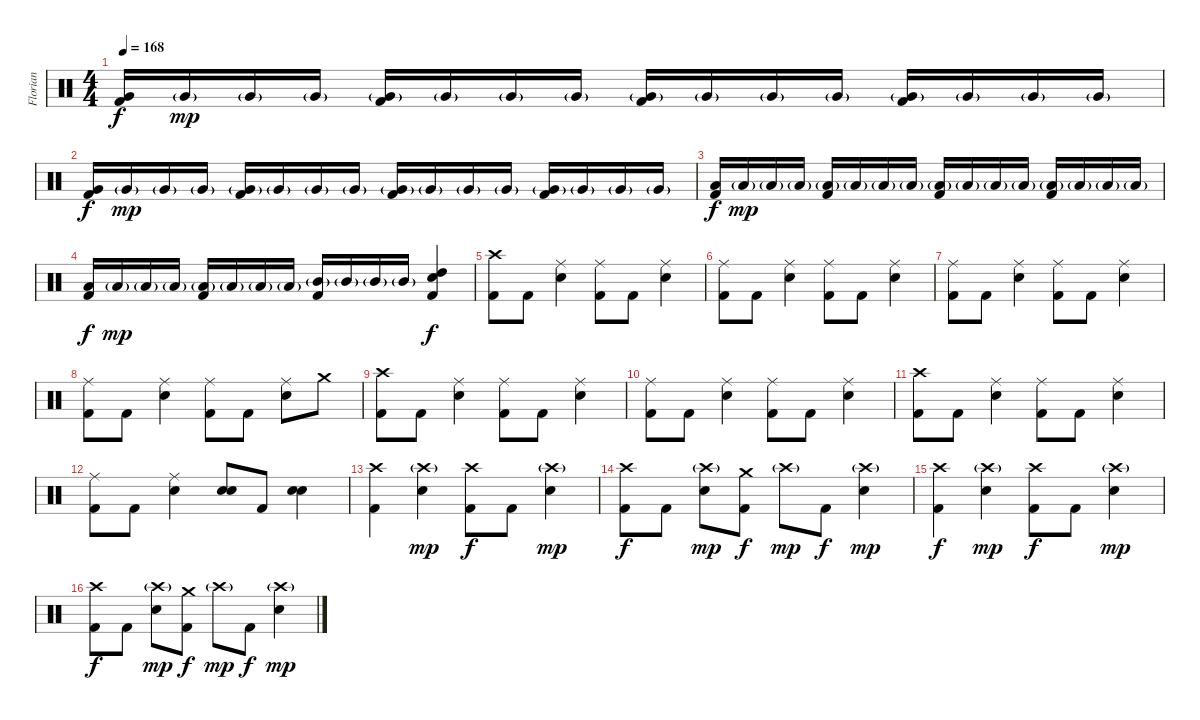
\track ("Florian" "Florian") {instrument percussion}
\staff {score}
\articulation defaults
\ts (4 4)
\tempo 168
\clef neutral
\ks c
("Very Low Tom (hit)" "Kick (hit) 2").16{dy f} "Very Low Tom (hit)"{g}.16{dy mp} "Very Low Tom (hit)"{g}.16 "Very Low Tom (hit)"{g}.16 ("Very Low Tom (hit)"{g} "Kick (hit) 2").16 "Very Low Tom (hit)"{g}.16 "Very Low Tom (hit)"{g}.16 "Very Low Tom (hit)"{g}.16 ("Very Low Tom (hit)"{g} "Kick (hit) 2").16 "Very Low Tom (hit)"{g}.16 "Very Low Tom (hit)"{g}.16 "Very Low Tom (hit)"{g}.16 ("Very Low Tom (hit)"{g} "Kick (hit) 2").16 "Very Low Tom (hit)"{g}.16 "Very Low Tom (hit)"{g}.16 "Very Low Tom (hit)"{g}.16 |
("Very Low Tom (hit)" "Kick (hit) 2").16{dy f} "Very Low Tom (hit)"{g}.16{dy mp} "Very Low Tom (hit)"{g}.16 "Very Low Tom (hit)"{g}.16 ("Very Low Tom (hit)"{g} "Kick (hit) 2").16 "Very Low Tom (hit)"{g}.16 "Very Low Tom (hit)"{g}.16 "Very Low Tom (hit)"{g}.16 ("Very Low Tom (hit)"{g} "Kick (hit) 2").16 "Very Low Tom (hit)"{g}.16 "Very Low Tom (hit)"{g}.16 "Very Low Tom (hit)"{g}.16 ("Very Low Tom (hit)"{g} "Kick (hit) 2").16 "Very Low Tom (hit)"{g}.16 "Very Low Tom (hit)"{g}.16 "Very Low Tom (hit)"{g}.16 |
("Low Tom (hit)" "Kick (hit) 2").16{dy f} "Low Tom (hit)"{g}.16{dy mp} "Low Tom (hit)"{g}.16 "Low Tom (hit)"{g}.16 ("Low Tom (hit)"{g} "Kick (hit) 2").16 "Low Tom (hit)"{g}.16 "Low Tom (hit)"{g}.16 "Low Tom (hit)"{g}.16 ("Low Tom (hit)"{g} "Kick (hit) 2").16 "Low Tom (hit)"{g}.16 "Low Tom (hit)"{g}.16 "Low Tom (hit)"{g}.16 ("Low Tom (hit)"{g} "Kick (hit) 2").16 "Low Tom (hit)"{g}.16 "Low Tom (hit)"{g}.16 "Low Tom (hit)"{g}.16 |
("Low Tom (hit)" "Kick (hit) 2").16{dy f} "Low Tom (hit)"{g}.16{dy mp} "Low Tom (hit)"{g}.16 "Low Tom (hit)"{g}.16 ("Low Tom (hit)"{g} "Kick (hit) 2").16 "Low Tom (hit)"{g}.16 "Low Tom (hit)"{g}.16 "Low Tom (hit)"{g}.16 ("Mid Tom (hit)"{g} "Kick (hit) 2").16 "Mid Tom (hit)"{g}.16 "Mid Tom (hit)"{g}.16 "Mid Tom (hit)"{g}.16 ("High Tom (hit)" "Snare (hit) 2" "Kick (hit) 2").4{dy f} |
("Crash high (hit)" "Kick (hit) 2").8 "Kick (hit) 2".8 ("Ride (middle)" "Snare (hit) 2").4 ("Ride (middle)" "Kick (hit) 2").8 "Kick (hit) 2".8 ("Ride (middle)" "Snare (hit) 2").4 |
("Ride (middle)" "Kick (hit) 2").8 "Kick (hit) 2".8 ("Ride (middle)" "Snare (hit) 2").4 ("Ride (middle)" "Kick (hit) 2").8 "Kick (hit) 2".8 ("Ride (middle)" "Snare (hit) 2").4 |
("Ride (middle)" "Kick (hit) 2").8 "Kick (hit) 2".8 ("Ride (middle)" "Snare (hit) 2").4 ("Ride (middle)" "Kick (hit) 2").8 "Kick (hit) 2".8 ("Ride (middle)" "Snare (hit) 2").4 |
("Ride (middle)" "Kick (hit) 2").8 "Kick (hit) 2".8 ("Ride (middle)" "Snare (hit) 2").4 ("Ride (middle)" "Kick (hit) 2").8 "Kick (hit) 2".8 ("Ride (middle)" "Snare (hit) 2").8 "Crash medium (hit)".8 |
("Crash high (hit)" "Kick (hit) 2").8 "Kick (hit) 2".8 ("Ride (middle)" "Snare (hit) 2").4 ("Ride (middle)" "Kick (hit) 2").8 "Kick (hit) 2".8 ("Ride (middle)" "Snare (hit) 2").4 |
("Ride (middle)" "Kick (hit) 2").8 "Kick (hit) 2".8 ("Ride (middle)" "Snare (hit) 2").4 ("Ride (middle)" "Kick (hit) 2").8 "Kick (hit) 2".8 ("Ride (middle)" "Snare (hit) 2").4 |
("Crash high (hit)" "Kick (hit) 2").8 "Kick (hit) 2".8 ("Ride (middle)" "Snare (hit) 2").4 ("Ride (middle)" "Kick (hit) 2").8 "Kick (hit) 2".8 ("Ride (middle)" "Snare (hit) 2").4 |
("Ride (middle)" "Kick (hit) 2").8 "Kick (hit) 2".8 ("Ride (middle)" "Snare (hit) 2").4 ("Snare (hit) 2" "Snare (hit) 2").8{bd 240} "Kick (hit) 2".8 ("Snare (hit) 2" "Snare (hit) 2").4 |
("Crash high (hit)" "Kick (hit) 2").4 ("Crash high (hit)"{g} "Snare (hit) 2").4{dy mp} ("Crash high (hit)" "Kick (hit) 2").8{dy f} "Kick (hit) 2".8 ("Crash high (hit)"{g} "Snare (hit) 2").4{dy mp} |
("Crash high (hit)" "Kick (hit) 2").8{dy f} "Kick (hit) 2".8 ("Crash high (hit)"{g} "Snare (hit) 2").8{dy mp} ("Crash medium (hit)" "Kick (hit) 2").8{dy f} "Crash high (hit)"{g}.8{dy mp} "Kick (hit) 2".8{dy f} ("Crash high (hit)"{g} "Snare (hit) 2").4{dy mp} |
("Crash high (hit)" "Kick (hit) 2").4{dy f} ("Crash high (hit)"{g} "Snare (hit) 2").4{dy mp} ("Crash high (hit)" "Kick (hit) 2").8{dy f} "Kick (hit) 2".8 ("Crash high (hit)"{g} "Snare (hit) 2").4{dy mp} |
("Crash high (hit)" "Kick (hit) 2").8{dy f} "Kick (hit) 2".8 ("Crash high (hit)"{g} "Snare (hit) 2").8{dy mp} ("Crash medium (hit)" "Kick (hit) 2").8{dy f} "Crash high (hit)"{g}.8{dy mp} "Kick (hit) 2".8{dy f} ("Crash high (hit)"{g} "Snare (hit) 2").4{dy mp}
